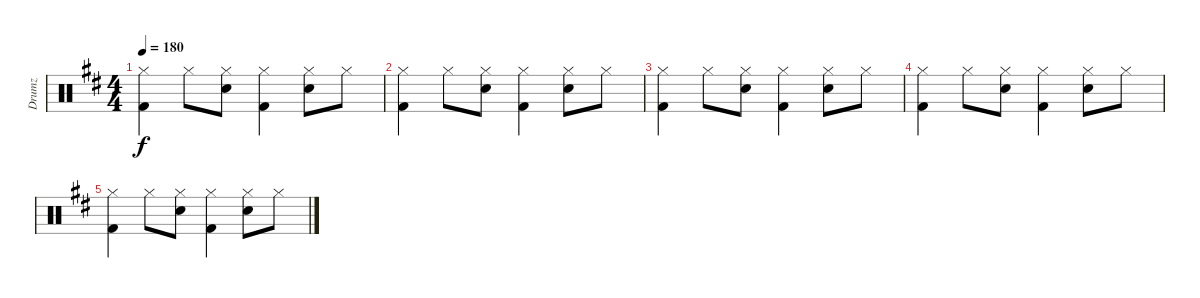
\track ("Drumz" "Drumz") {instrument percussion}
\staff {score}
\articulation defaults
\ts (4 4)
\tempo 180
\clef neutral
\ks d
("Hi-Hat (closed)" "Kick (hit) 2").4{dy f} "Hi-Hat (closed)".8 ("Hi-Hat (closed)" "Snare (hit) 2").8 ("Hi-Hat (closed)" "Kick (hit) 2").4 ("Hi-Hat (closed)" "Snare (hit) 2").8 "Hi-Hat (closed)".8 |
("Hi-Hat (closed)" "Kick (hit) 2").4 "Hi-Hat (closed)".8 ("Hi-Hat (closed)" "Snare (hit) 2").8 ("Hi-Hat (closed)" "Kick (hit) 2").4 ("Hi-Hat (closed)" "Snare (hit) 2").8 "Hi-Hat (closed)".8 |
("Hi-Hat (closed)" "Kick (hit) 2").4 "Hi-Hat (closed)".8 ("Hi-Hat (closed)" "Snare (hit) 2").8 ("Hi-Hat (closed)" "Kick (hit) 2").4 ("Hi-Hat (closed)" "Snare (hit) 2").8 "Hi-Hat (closed)".8 |
("Hi-Hat (closed)" "Kick (hit) 2").4 "Hi-Hat (closed)".8 ("Hi-Hat (closed)" "Snare (hit) 2").8 ("Hi-Hat (closed)" "Kick (hit) 2").4 ("Hi-Hat (closed)" "Snare (hit) 2").8 "Hi-Hat (closed)".8 |
("Hi-Hat (closed)" "Kick (hit) 2").4 "Hi-Hat (closed)".8 ("Hi-Hat (closed)" "Snare (hit) 2").8 ("Hi-Hat (closed)" "Kick (hit) 2").4 ("Hi-Hat (closed)" "Snare (hit) 2").8 "Hi-Hat (closed)".8
